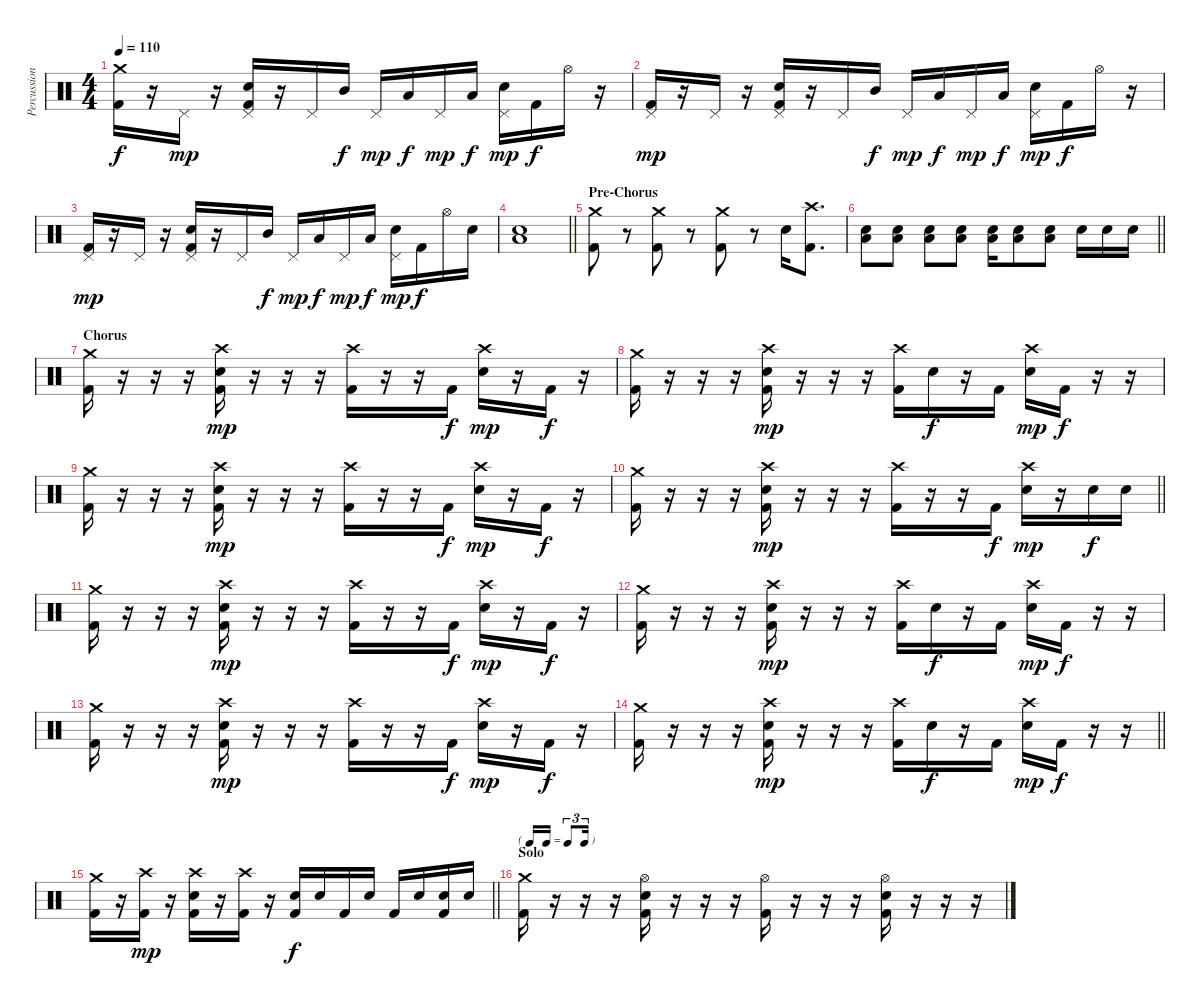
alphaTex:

\track ("Percussion" "Percussion") {instrument percussion}
\staff {score}
\articulation defaults
\ts (4 4)
\tempo 110
\clef neutral
\ks c
("Crash medium (hit)" "Kick (hit) 2").16{dy f} r.16 "Pedal Hi-Hat (hit)".16{dy mp} r.16 ("Pedal Hi-Hat (hit)" "Electric Snare (hit)" "Kick (hit) 2").16 r.16 "Pedal Hi-Hat (hit)".16 "Mid Tom (hit)".16{dy f} "Pedal Hi-Hat (hit)".16{dy mp} "Low Tom (hit)".16{dy f} "Pedal Hi-Hat (hit)".16{dy mp} "Low Floor Tom (hit)".16{dy f} ("Pedal Hi-Hat (hit)" "Electric Snare (hit)").16{dy mp} "Kick (hit) 2".16{dy f} "Hi-Hat (open)".16 r.16 |
("Pedal Hi-Hat (hit)" "Kick (hit) 2").16{dy mp} r.16 "Pedal Hi-Hat (hit)".16 r.16 ("Pedal Hi-Hat (hit)" "Electric Snare (hit)" "Kick (hit) 2").16 r.16 "Pedal Hi-Hat (hit)".16 "Mid Tom (hit)".16{dy f} "Pedal Hi-Hat (hit)".16{dy mp} "Low Tom (hit)".16{dy f} "Pedal Hi-Hat (hit)".16{dy mp} "Low Floor Tom (hit)".16{dy f} ("Pedal Hi-Hat (hit)" "Electric Snare (hit)").16{dy mp} "Kick (hit) 2".16{dy f} "Hi-Hat (open)".16 r.16 |
("Pedal Hi-Hat (hit)" "Kick (hit) 2").16{dy mp} r.16 "Pedal Hi-Hat (hit)".16 r.16 ("Pedal Hi-Hat (hit)" "Electric Snare (hit)" "Kick (hit) 2").16 r.16 "Pedal Hi-Hat (hit)".16 "Mid Tom (hit)".16{dy f} "Pedal Hi-Hat (hit)".16{dy mp} "Low Tom (hit)".16{dy f} "Pedal Hi-Hat (hit)".16{dy mp} "Low Floor Tom (hit)".16{dy f} ("Pedal Hi-Hat (hit)" "Electric Snare (hit)").16{dy mp} "Kick (hit) 2".16{dy f} "Hi-Hat (open)".16 "Electric Snare (hit)".16 |
\barLineRight lightlight
("Low Floor Tom (hit)" "Electric Snare (hit)").1 |
\section ("" "Pre-Chorus")
("Crash medium (hit)" "Kick (hit) 2").8 r.8 ("Crash medium (hit)" "Kick (hit) 2").8 r.8 ("Crash medium (hit)" "Kick (hit) 2").8 r.8 "Electric Snare (hit)".16 ("Crash high (hit)" "Kick (hit) 2").8{d} |
\barLineRight lightlight
("Low Floor Tom (hit)" "Electric Snare (hit)").8 ("Low Floor Tom (hit)" "Electric Snare (hit)").8 ("Low Floor Tom (hit)" "Electric Snare (hit)").8 ("Low Floor Tom (hit)" "Electric Snare (hit)").8 ("Low Floor Tom (hit)" "Electric Snare (hit)").16 ("Low Floor Tom (hit)" "Electric Snare (hit)").8 ("Low Floor Tom (hit)" "Electric Snare (hit)").8 "Electric Snare (hit)".16 "Electric Snare (hit)".16 "Electric Snare (hit)".16 |
\section ("" "Chorus")
("Crash medium (hit)" "Kick (hit) 2").16 r.16 r.16 r.16 ("Crash high (hit)" "Electric Snare (hit)" "Kick (hit) 2").16{dy mp} r.16 r.16 r.16 ("Crash high (hit)" "Kick (hit) 2").16 r.16 r.16 "Kick (hit) 2".16{dy f} ("Crash high (hit)" "Electric Snare (hit)").16{dy mp} r.16 "Kick (hit) 2".16{dy f} r.16 |
("Crash medium (hit)" "Kick (hit) 2").16 r.16 r.16 r.16 ("Crash high (hit)" "Electric Snare (hit)" "Kick (hit) 2").16{dy mp} r.16 r.16 r.16 ("Crash high (hit)" "Kick (hit) 2").16 "Electric Snare (hit)".16{dy f} r.16 "Kick (hit) 2".16 ("Crash high (hit)" "Electric Snare (hit)").16{dy mp} "Kick (hit) 2".16{dy f} r.16 r.16 |
("Crash medium (hit)" "Kick (hit) 2").16 r.16 r.16 r.16 ("Crash high (hit)" "Electric Snare (hit)" "Kick (hit) 2").16{dy mp} r.16 r.16 r.16 ("Crash high (hit)" "Kick (hit) 2").16 r.16 r.16 "Kick (hit) 2".16{dy f} ("Crash high (hit)" "Electric Snare (hit)").16{dy mp} r.16 "Kick (hit) 2".16{dy f} r.16 |
\barLineRight lightlight
("Crash medium (hit)" "Kick (hit) 2").16 r.16 r.16 r.16 ("Crash high (hit)" "Electric Snare (hit)" "Kick (hit) 2").16{dy mp} r.16 r.16 r.16 ("Crash high (hit)" "Kick (hit) 2").16 r.16 r.16 "Kick (hit) 2".16{dy f} ("Crash high (hit)" "Electric Snare (hit)").16{dy mp} r.16 "Electric Snare (hit)".16{dy f} "Electric Snare (hit)".16 |
("Crash medium (hit)" "Kick (hit) 2").16 r.16 r.16 r.16 ("Crash high (hit)" "Electric Snare (hit)" "Kick (hit) 2").16{dy mp} r.16 r.16 r.16 ("Crash high (hit)" "Kick (hit) 2").16 r.16 r.16 "Kick (hit) 2".16{dy f} ("Crash high (hit)" "Electric Snare (hit)").16{dy mp} r.16 "Kick (hit) 2".16{dy f} r.16 |
("Crash medium (hit)" "Kick (hit) 2").16 r.16 r.16 r.16 ("Crash high (hit)" "Electric Snare (hit)" "Kick (hit) 2").16{dy mp} r.16 r.16 r.16 ("Crash high (hit)" "Kick (hit) 2").16 "Electric Snare (hit)".16{dy f} r.16 "Kick (hit) 2".16 ("Crash high (hit)" "Electric Snare (hit)").16{dy mp} "Kick (hit) 2".16{dy f} r.16 r.16 |
("Crash medium (hit)" "Kick (hit) 2").16 r.16 r.16 r.16 ("Crash high (hit)" "Electric Snare (hit)" "Kick (hit) 2").16{dy mp} r.16 r.16 r.16 ("Crash high (hit)" "Kick (hit) 2").16 r.16 r.16 "Kick (hit) 2".16{dy f} ("Crash high (hit)" "Electric Snare (hit)").16{dy mp} r.16 "Kick (hit) 2".16{dy f} r.16 |
\barLineRight lightlight
("Crash medium (hit)" "Kick (hit) 2").16 r.16 r.16 r.16 ("Crash high (hit)" "Electric Snare (hit)" "Kick (hit) 2").16{dy mp} r.16 r.16 r.16 ("Crash high (hit)" "Kick (hit) 2").16 "Electric Snare (hit)".16{dy f} r.16 "Kick (hit) 2".16 ("Crash high (hit)" "Electric Snare (hit)").16{dy mp} "Kick (hit) 2".16{dy f} r.16 r.16 |
\barLineRight lightlight
("Crash medium (hit)" "Kick (hit) 2").16 r.16 ("Crash high (hit)" "Kick (hit) 2").16{dy mp} r.16 ("Crash high (hit)" "Electric Snare (hit)" "Kick (hit) 2").16 r.16 ("Crash high (hit)" "Kick (hit) 2").16 r.16 ("Electric Snare (hit)" "Kick (hit) 2").16{dy f} "Electric Snare (hit)".16 "Kick (hit) 2".16 "Electric Snare (hit)".16 "Kick (hit) 2".16 "Electric Snare (hit)".16 ("Electric Snare (hit)" "Kick (hit) 2").16 "Electric Snare (hit)".16 |
\tf triplet16th
\section ("" "Solo")
("Crash medium (hit)" "Kick (hit) 2").16 r.16 r.16 r.16 ("Hi-Hat (open)" "Electric Snare (hit)" "Kick (hit) 2").16 r.16 r.16 r.16 ("Hi-Hat (open)" "Kick (hit) 2").16 r.16 r.16 r.16 ("Hi-Hat (open)" "Electric Snare (hit)" "Kick (hit) 2").16 r.16 r.16 r.16
